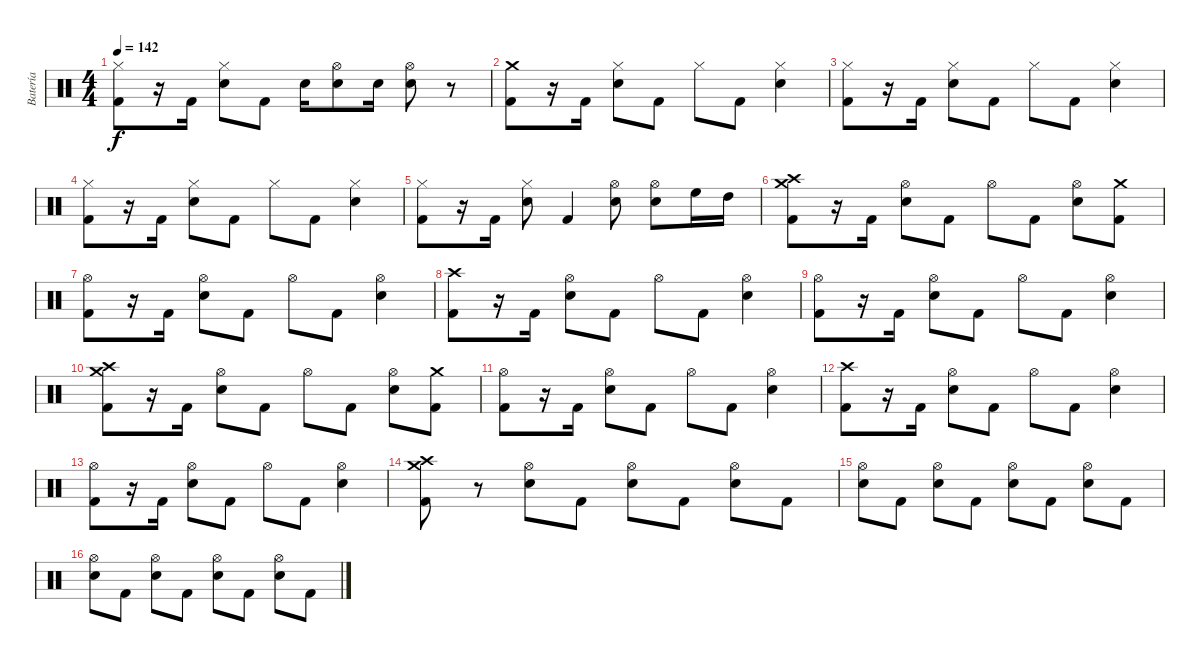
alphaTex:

\track ("Batería" "Batería") {instrument percussion}
\staff {score}
\articulation defaults
\ts (4 4)
\tempo 142
\clef neutral
\ks c
("Hi-Hat (closed)" "Kick (hit) 2").8{dy f} r.16 "Kick (hit) 2".16 ("Hi-Hat (closed)" "Electric Snare (hit)").8 "Kick (hit) 2".8 "Electric Snare (hit)".16 ("Hi-Hat (open)" "Electric Snare (hit)").8 "Electric Snare (hit)".16 ("Hi-Hat (open)" "Electric Snare (hit)").8 r.8 |
("Crash medium (hit)" "Kick (hit) 2").8 r.16 "Kick (hit) 2".16 ("Hi-Hat (closed)" "Electric Snare (hit)").8 "Kick (hit) 2".8 "Hi-Hat (closed)".8 "Kick (hit) 2".8 ("Hi-Hat (closed)" "Electric Snare (hit)").4 |
("Hi-Hat (closed)" "Kick (hit) 2").8 r.16 "Kick (hit) 2".16 ("Hi-Hat (closed)" "Electric Snare (hit)").8 "Kick (hit) 2".8 "Hi-Hat (closed)".8 "Kick (hit) 2".8 ("Hi-Hat (closed)" "Electric Snare (hit)").4 |
("Hi-Hat (closed)" "Kick (hit) 2").8 r.16 "Kick (hit) 2".16 ("Hi-Hat (closed)" "Electric Snare (hit)").8 "Kick (hit) 2".8 "Hi-Hat (closed)".8 "Kick (hit) 2".8 ("Hi-Hat (closed)" "Electric Snare (hit)").4 |
("Hi-Hat (closed)" "Kick (hit) 2").8 r.16 "Kick (hit) 2".16 ("Hi-Hat (closed)" "Electric Snare (hit)").8 "Kick (hit) 2".4 ("Hi-Hat (open)" "Electric Snare (hit)").8 ("Hi-Hat (open)" "Electric Snare (hit)").8 "High Floor Tom (hit)".16 "High Tom (hit)".16 |
("Crash high (hit)" "Crash medium (hit)" "Kick (hit) 2").8 r.16 "Kick (hit) 2".16 ("Hi-Hat (open)" "Electric Snare (hit)").8 "Kick (hit) 2".8 "Hi-Hat (open)".8 "Kick (hit) 2".8 ("Hi-Hat (open)" "Electric Snare (hit)").8 ("Crash medium (hit)" "Kick (hit) 2").8 |
("Hi-Hat (open)" "Kick (hit) 2").8 r.16 "Kick (hit) 2".16 ("Hi-Hat (open)" "Electric Snare (hit)").8 "Kick (hit) 2".8 "Hi-Hat (open)".8 "Kick (hit) 2".8 ("Hi-Hat (open)" "Electric Snare (hit)").4 |
("Crash high (hit)" "Kick (hit) 2").8 r.16 "Kick (hit) 2".16 ("Hi-Hat (open)" "Electric Snare (hit)").8 "Kick (hit) 2".8 "Hi-Hat (open)".8 "Kick (hit) 2".8 ("Hi-Hat (open)" "Electric Snare (hit)").4 |
("Hi-Hat (open)" "Kick (hit) 2").8 r.16 "Kick (hit) 2".16 ("Hi-Hat (open)" "Electric Snare (hit)").8 "Kick (hit) 2".8 "Hi-Hat (open)".8 "Kick (hit) 2".8 ("Hi-Hat (open)" "Electric Snare (hit)").4 |
("Crash high (hit)" "Crash medium (hit)" "Kick (hit) 2").8 r.16 "Kick (hit) 2".16 ("Hi-Hat (open)" "Electric Snare (hit)").8 "Kick (hit) 2".8 "Hi-Hat (open)".8 "Kick (hit) 2".8 ("Hi-Hat (open)" "Electric Snare (hit)").8 ("Crash medium (hit)" "Kick (hit) 2").8 |
("Hi-Hat (open)" "Kick (hit) 2").8 r.16 "Kick (hit) 2".16 ("Hi-Hat (open)" "Electric Snare (hit)").8 "Kick (hit) 2".8 "Hi-Hat (open)".8 "Kick (hit) 2".8 ("Hi-Hat (open)" "Electric Snare (hit)").4 |
("Crash high (hit)" "Kick (hit) 2").8 r.16 "Kick (hit) 2".16 ("Hi-Hat (open)" "Electric Snare (hit)").8 "Kick (hit) 2".8 "Hi-Hat (open)".8 "Kick (hit) 2".8 ("Hi-Hat (open)" "Electric Snare (hit)").4 |
("Hi-Hat (open)" "Kick (hit) 2").8 r.16 "Kick (hit) 2".16 ("Hi-Hat (open)" "Electric Snare (hit)").8 "Kick (hit) 2".8 "Hi-Hat (open)".8 "Kick (hit) 2".8 ("Hi-Hat (open)" "Electric Snare (hit)").4 |
("Crash high (hit)" "Crash medium (hit)" "Kick (hit) 2").8 r.8 ("Hi-Hat (open)" "Electric Snare (hit)").8 "Kick (hit) 2".8 ("Hi-Hat (open)" "Electric Snare (hit)").8 "Kick (hit) 2".8 ("Hi-Hat (open)" "Electric Snare (hit)").8 "Kick (hit) 2".8 |
("Hi-Hat (open)" "Electric Snare (hit)").8 "Kick (hit) 2".8 ("Hi-Hat (open)" "Electric Snare (hit)").8 "Kick (hit) 2".8 ("Hi-Hat (open)" "Electric Snare (hit)").8 "Kick (hit) 2".8 ("Hi-Hat (open)" "Electric Snare (hit)").8 "Kick (hit) 2".8 |
("Hi-Hat (open)" "Electric Snare (hit)").8 "Kick (hit) 2".8 ("Hi-Hat (open)" "Electric Snare (hit)").8 "Kick (hit) 2".8 ("Hi-Hat (open)" "Electric Snare (hit)").8 "Kick (hit) 2".8 ("Hi-Hat (open)" "Electric Snare (hit)").8 "Kick (hit) 2".8
